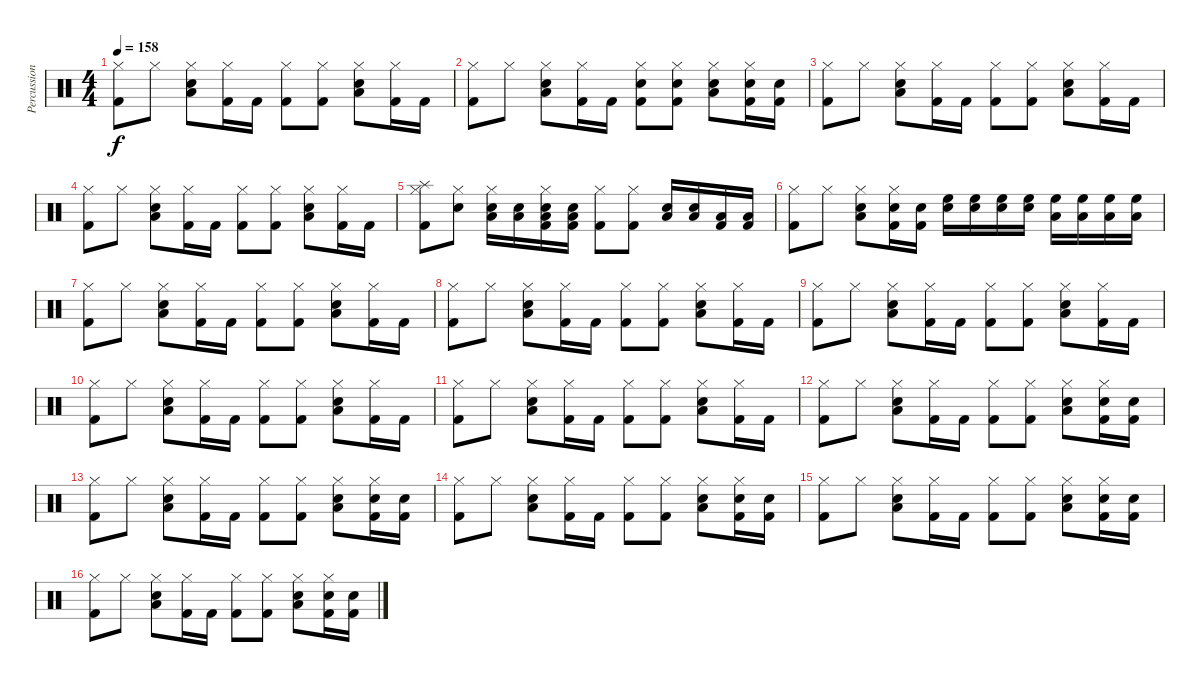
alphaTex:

\track ("Percussion" "Percussion") {instrument percussion}
\staff {score}
\articulation defaults
\ts (4 4)
\tempo 158
\clef neutral
\ks c
("Hi-Hat (closed)" "Kick (hit) 2").8{dy f} "Hi-Hat (closed)".8 ("Hi-Hat (closed)" "Low Tom (hit)" "Snare (hit) 2").8 ("Hi-Hat (closed)" "Kick (hit) 2").16 "Kick (hit) 2".16 ("Kick (hit) 2" "Hi-Hat (closed)").8 ("Kick (hit) 2" "Hi-Hat (closed)").8 ("Snare (hit) 2" "Low Tom (hit)" "Hi-Hat (closed)").8 ("Kick (hit) 2" "Hi-Hat (closed)").16 "Kick (hit) 2".16 |
("Hi-Hat (closed)" "Kick (hit) 2").8 "Hi-Hat (closed)".8 ("Hi-Hat (closed)" "Low Tom (hit)" "Snare (hit) 2").8 ("Hi-Hat (closed)" "Kick (hit) 2").16 "Kick (hit) 2".16 ("Kick (hit) 2" "Hi-Hat (closed)" "Snare (hit) 2").8 ("Kick (hit) 2" "Hi-Hat (closed)" "Snare (hit) 2").8 ("Snare (hit) 2" "Low Tom (hit)" "Hi-Hat (closed)").8 ("Kick (hit) 2" "Hi-Hat (closed)" "Snare (hit) 2").16 ("Kick (hit) 2" "Snare (hit) 2").16 |
("Hi-Hat (closed)" "Kick (hit) 2").8 "Hi-Hat (closed)".8 ("Hi-Hat (closed)" "Low Tom (hit)" "Snare (hit) 2").8 ("Hi-Hat (closed)" "Kick (hit) 2").16 "Kick (hit) 2".16 ("Kick (hit) 2" "Hi-Hat (closed)").8 ("Kick (hit) 2" "Hi-Hat (closed)").8 ("Snare (hit) 2" "Low Tom (hit)" "Hi-Hat (closed)").8 ("Kick (hit) 2" "Hi-Hat (closed)").16 "Kick (hit) 2".16 |
("Hi-Hat (closed)" "Kick (hit) 2").8 "Hi-Hat (closed)".8 ("Hi-Hat (closed)" "Low Tom (hit)" "Snare (hit) 2").8 ("Hi-Hat (closed)" "Kick (hit) 2").16 "Kick (hit) 2".16 ("Kick (hit) 2" "Hi-Hat (closed)").8 ("Kick (hit) 2" "Hi-Hat (closed)").8 ("Snare (hit) 2" "Low Tom (hit)" "Hi-Hat (closed)").8 ("Kick (hit) 2" "Hi-Hat (closed)").16 "Kick (hit) 2".16 |
("Hi-Hat (closed)" "Kick (hit) 2" "Splash (hit)").8 ("Hi-Hat (closed)" "Snare (hit) 2").8 ("Hi-Hat (closed)" "Low Tom (hit)" "Snare (hit) 2").16 ("Low Tom (hit)" "Snare (hit) 2").16 ("Hi-Hat (closed)" "Kick (hit) 2" "Low Tom (hit)" "Snare (hit) 2").16 ("Kick (hit) 2" "Low Tom (hit)" "Snare (hit) 2").16 ("Kick (hit) 2" "Hi-Hat (closed)").8 ("Kick (hit) 2" "Hi-Hat (closed)").8 ("Snare (hit) 2" "Low Tom (hit)").16 ("Snare (hit) 2" "Low Tom (hit)").16 ("Kick (hit) 2" "Low Tom (hit)").16 ("Kick (hit) 2" "Low Tom (hit)").16 |
("Hi-Hat (closed)" "Kick (hit) 2").8 "Hi-Hat (closed)".8 ("Hi-Hat (closed)" "Low Tom (hit)" "Snare (hit) 2").8 ("Hi-Hat (closed)" "Kick (hit) 2" "Snare (hit) 2").16 ("Kick (hit) 2" "Snare (hit) 2").16 ("High Floor Tom (hit)" "Snare (hit) 2").16 ("High Floor Tom (hit)" "Snare (hit) 2").16 ("High Floor Tom (hit)" "Snare (hit) 2").16 ("High Floor Tom (hit)" "Snare (hit) 2").16 ("High Floor Tom (hit)" "Low Tom (hit)").16 ("High Floor Tom (hit)" "Low Tom (hit)").16 ("High Floor Tom (hit)" "Low Tom (hit)").16 ("High Floor Tom (hit)" "Low Tom (hit)").16 |
("Hi-Hat (closed)" "Kick (hit) 2").8 "Hi-Hat (closed)".8 ("Hi-Hat (closed)" "Low Tom (hit)" "Snare (hit) 2").8 ("Hi-Hat (closed)" "Kick (hit) 2").16 "Kick (hit) 2".16 ("Kick (hit) 2" "Hi-Hat (closed)").8 ("Kick (hit) 2" "Hi-Hat (closed)").8 ("Snare (hit) 2" "Low Tom (hit)" "Hi-Hat (closed)").8 ("Kick (hit) 2" "Hi-Hat (closed)").16 "Kick (hit) 2".16 |
("Hi-Hat (closed)" "Kick (hit) 2").8 "Hi-Hat (closed)".8 ("Hi-Hat (closed)" "Low Tom (hit)" "Snare (hit) 2").8 ("Hi-Hat (closed)" "Kick (hit) 2").16 "Kick (hit) 2".16 ("Kick (hit) 2" "Hi-Hat (closed)").8 ("Kick (hit) 2" "Hi-Hat (closed)").8 ("Snare (hit) 2" "Low Tom (hit)" "Hi-Hat (closed)").8 ("Kick (hit) 2" "Hi-Hat (closed)").16 "Kick (hit) 2".16 |
("Hi-Hat (closed)" "Kick (hit) 2").8 "Hi-Hat (closed)".8 ("Hi-Hat (closed)" "Low Tom (hit)" "Snare (hit) 2").8 ("Hi-Hat (closed)" "Kick (hit) 2").16 "Kick (hit) 2".16 ("Kick (hit) 2" "Hi-Hat (closed)").8 ("Kick (hit) 2" "Hi-Hat (closed)").8 ("Snare (hit) 2" "Low Tom (hit)" "Hi-Hat (closed)").8 ("Kick (hit) 2" "Hi-Hat (closed)").16 "Kick (hit) 2".16 |
("Hi-Hat (closed)" "Kick (hit) 2").8 "Hi-Hat (closed)".8 ("Hi-Hat (closed)" "Low Tom (hit)" "Snare (hit) 2").8 ("Hi-Hat (closed)" "Kick (hit) 2").16 "Kick (hit) 2".16 ("Kick (hit) 2" "Hi-Hat (closed)").8 ("Kick (hit) 2" "Hi-Hat (closed)").8 ("Snare (hit) 2" "Low Tom (hit)" "Hi-Hat (closed)").8 ("Kick (hit) 2" "Hi-Hat (closed)").16 "Kick (hit) 2".16 |
("Hi-Hat (closed)" "Kick (hit) 2").8 "Hi-Hat (closed)".8 ("Hi-Hat (closed)" "Low Tom (hit)" "Snare (hit) 2").8 ("Hi-Hat (closed)" "Kick (hit) 2").16 "Kick (hit) 2".16 ("Kick (hit) 2" "Hi-Hat (closed)").8 ("Kick (hit) 2" "Hi-Hat (closed)").8 ("Snare (hit) 2" "Low Tom (hit)" "Hi-Hat (closed)").8 ("Kick (hit) 2" "Hi-Hat (closed)").16 "Kick (hit) 2".16 |
("Hi-Hat (closed)" "Kick (hit) 2").8 "Hi-Hat (closed)".8 ("Hi-Hat (closed)" "Low Tom (hit)" "Snare (hit) 2").8 ("Hi-Hat (closed)" "Kick (hit) 2").16 "Kick (hit) 2".16 ("Kick (hit) 2" "Hi-Hat (closed)").8 ("Kick (hit) 2" "Hi-Hat (closed)").8 ("Snare (hit) 2" "Low Tom (hit)" "Hi-Hat (closed)").8 ("Kick (hit) 2" "Hi-Hat (closed)" "Snare (hit) 2").16 ("Kick (hit) 2" "Snare (hit) 2").16 |
("Hi-Hat (closed)" "Kick (hit) 2").8 "Hi-Hat (closed)".8 ("Hi-Hat (closed)" "Low Tom (hit)" "Snare (hit) 2").8 ("Hi-Hat (closed)" "Kick (hit) 2").16 "Kick (hit) 2".16 ("Kick (hit) 2" "Hi-Hat (closed)").8 ("Kick (hit) 2" "Hi-Hat (closed)").8 ("Snare (hit) 2" "Low Tom (hit)" "Hi-Hat (closed)").8 ("Kick (hit) 2" "Hi-Hat (closed)" "Snare (hit) 2").16 ("Kick (hit) 2" "Snare (hit) 2").16 |
("Hi-Hat (closed)" "Kick (hit) 2").8 "Hi-Hat (closed)".8 ("Hi-Hat (closed)" "Low Tom (hit)" "Snare (hit) 2").8 ("Hi-Hat (closed)" "Kick (hit) 2").16 "Kick (hit) 2".16 ("Kick (hit) 2" "Hi-Hat (closed)").8 ("Kick (hit) 2" "Hi-Hat (closed)").8 ("Snare (hit) 2" "Low Tom (hit)" "Hi-Hat (closed)").8 ("Kick (hit) 2" "Hi-Hat (closed)" "Snare (hit) 2").16 ("Kick (hit) 2" "Snare (hit) 2").16 |
("Hi-Hat (closed)" "Kick (hit) 2").8 "Hi-Hat (closed)".8 ("Hi-Hat (closed)" "Low Tom (hit)" "Snare (hit) 2").8 ("Hi-Hat (closed)" "Kick (hit) 2").16 "Kick (hit) 2".16 ("Kick (hit) 2" "Hi-Hat (closed)").8 ("Kick (hit) 2" "Hi-Hat (closed)").8 ("Snare (hit) 2" "Low Tom (hit)" "Hi-Hat (closed)").8 ("Kick (hit) 2" "Hi-Hat (closed)" "Snare (hit) 2").16 ("Kick (hit) 2" "Snare (hit) 2").16 |
("Hi-Hat (closed)" "Kick (hit) 2").8 "Hi-Hat (closed)".8 ("Hi-Hat (closed)" "Low Tom (hit)" "Snare (hit) 2").8 ("Hi-Hat (closed)" "Kick (hit) 2").16 "Kick (hit) 2".16 ("Kick (hit) 2" "Hi-Hat (closed)").8 ("Kick (hit) 2" "Hi-Hat (closed)").8 ("Snare (hit) 2" "Low Tom (hit)" "Hi-Hat (closed)").8 ("Kick (hit) 2" "Hi-Hat (closed)" "Snare (hit) 2").16 ("Kick (hit) 2" "Snare (hit) 2").16
